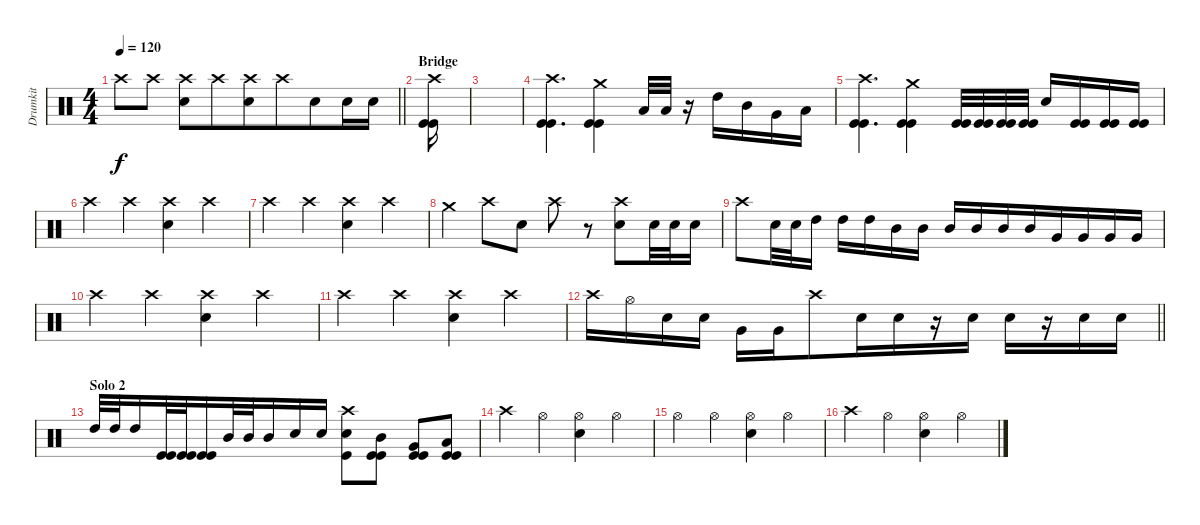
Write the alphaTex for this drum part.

\track ("Drumkit" "Drumkit") {instrument percussion}
\staff {score}
\articulation defaults
\ts (4 4)
\tempo 120
\clef neutral
\barLineRight lightlight
\ks c "Crash high (hit)".8{dy f beam merge} "Crash high (hit)".8
("Crash high (hit)" "Electric Snare (hit)").8 "Crash high (hit)".8{beam merge} ("Crash high (hit)" "Electric Snare (hit)").8 "Crash high (hit)".8{beam merge} "Electric Snare (hit)".8 "Electric Snare (hit)".16 "Electric Snare (hit)".16 |
\section ("" "Bridge")
("Crash high (hit)" "Kick (hit)" "Kick (hit)").16 |
|
("Crash high (hit)" "Kick (hit)" "Kick (hit)").4{d} ("Crash medium (hit)" "Kick (hit)" "Kick (hit)").4 "Low Floor Tom (hit)".32 "Low Floor Tom (hit)".32 r.16 "High Tom (hit)".16 "Mid Tom (hit)".16 "Very Low Tom (hit)".16{beam merge} "Low Floor Tom (hit)".16 |
("Crash high (hit)" "Kick (hit)" "Kick (hit)").4{d} ("Crash medium (hit)" "Kick (hit)" "Kick (hit)").4 ("Kick (hit)" "Kick (hit)").32 ("Kick (hit)" "Kick (hit)").32 ("Kick (hit)" "Kick (hit)").32 ("Kick (hit)" "Kick (hit)").32 "Electric Snare (hit)".16 ("Kick (hit)" "Kick (hit)").16 ("Kick (hit)" "Kick (hit)").16 ("Kick (hit)" "Kick (hit)").16 |
"Crash high (hit)".4{beam merge} "Crash high (hit)".4 ("Crash high (hit)" "Electric Snare (hit)").4 "Crash high (hit)".4 |
"Crash high (hit)".4{beam merge} "Crash high (hit)".4 ("Crash high (hit)" "Electric Snare (hit)").4 "Crash high (hit)".4 |
"Crash medium (hit)".4 "Crash high (hit)".8 "Electric Snare (hit)".8 "Crash high (hit)".8 r.8 ("Crash high (hit)" "Electric Snare (hit)").8{beam merge} "Electric Snare (hit)".32 "Electric Snare (hit)".32 "Electric Snare (hit)".16 |
"Crash high (hit)".8{beam merge} "Electric Snare (hit)".32{beam merge} "Electric Snare (hit)".32 "High Tom (hit)".16 "High Tom (hit)".16{beam merge} "High Tom (hit)".16 "Mid Tom (hit)".16{beam merge} "Mid Tom (hit)".16 "Mid Tom (hit)".16{beam merge} "Mid Tom (hit)".16 "Mid Tom (hit)".16 "Mid Tom (hit)".16{beam merge} "Very Low Tom (hit)".16{beam merge} "Very Low Tom (hit)".16 "Very Low Tom (hit)".16{beam merge} "Very Low Tom (hit)".16 |
"Crash high (hit)".4{beam merge} "Crash high (hit)".4 ("Crash high (hit)" "Electric Snare (hit)").4 "Crash high (hit)".4 |
"Crash high (hit)".4{beam merge} "Crash high (hit)".4 ("Crash high (hit)" "Electric Snare (hit)").4 "Crash high (hit)".4 |
\barLineRight lightlight "Crash high (hit)".16 "Hi-Hat (open)".16 "Electric Snare (hit)".16 "Electric Snare (hit)".16 "Very Low Tom (hit)".16{beam merge} "Very Low Tom (hit)".16 "Crash high (hit)".8{beam merge} "Electric Snare (hit)".16{beam merge} "Electric Snare (hit)".16
r.16 "Electric Snare (hit)".16 "Electric Snare (hit)".16{beam merge} r.16 "Electric Snare (hit)".16 "Electric Snare (hit)".16 |
\section ("" "Solo 2")
"High Tom (hit)".32 "High Tom (hit)".32 "High Tom (hit)".16{beam merge} ("Kick (hit)" "Kick (hit)").32 ("Kick (hit)" "Kick (hit)").32 ("Kick (hit)" "Kick (hit)").16{beam merge} "Mid Tom (hit)".32 "Mid Tom (hit)".32{beam merge} "Mid Tom (hit)".16 "Electric Snare (hit)".16 "Electric Snare (hit)".16 ("Crash high (hit)" "Electric Snare (hit)" "Kick (hit)").8{beam merge} ("Mid Tom (hit)" "Kick (hit)" "Kick (hit)").8 ("Very Low Tom (hit)" "Kick (hit)" "Kick (hit)").8 ("Low Floor Tom (hit)" "Kick (hit)" "Kick (hit)").8 |
"Crash high (hit)".4 "Hi-Hat (open)".4{beam merge} ("Hi-Hat (open)" "Electric Snare (hit)").4 "Hi-Hat (open)".4 |
"Hi-Hat (open)".4 "Hi-Hat (open)".4 ("Hi-Hat (open)" "Electric Snare (hit)").4 "Hi-Hat (open)".4 |
"Crash high (hit)".4 "Hi-Hat (open)".4{beam merge} ("Hi-Hat (open)" "Electric Snare (hit)").4 "Hi-Hat (open)".4
